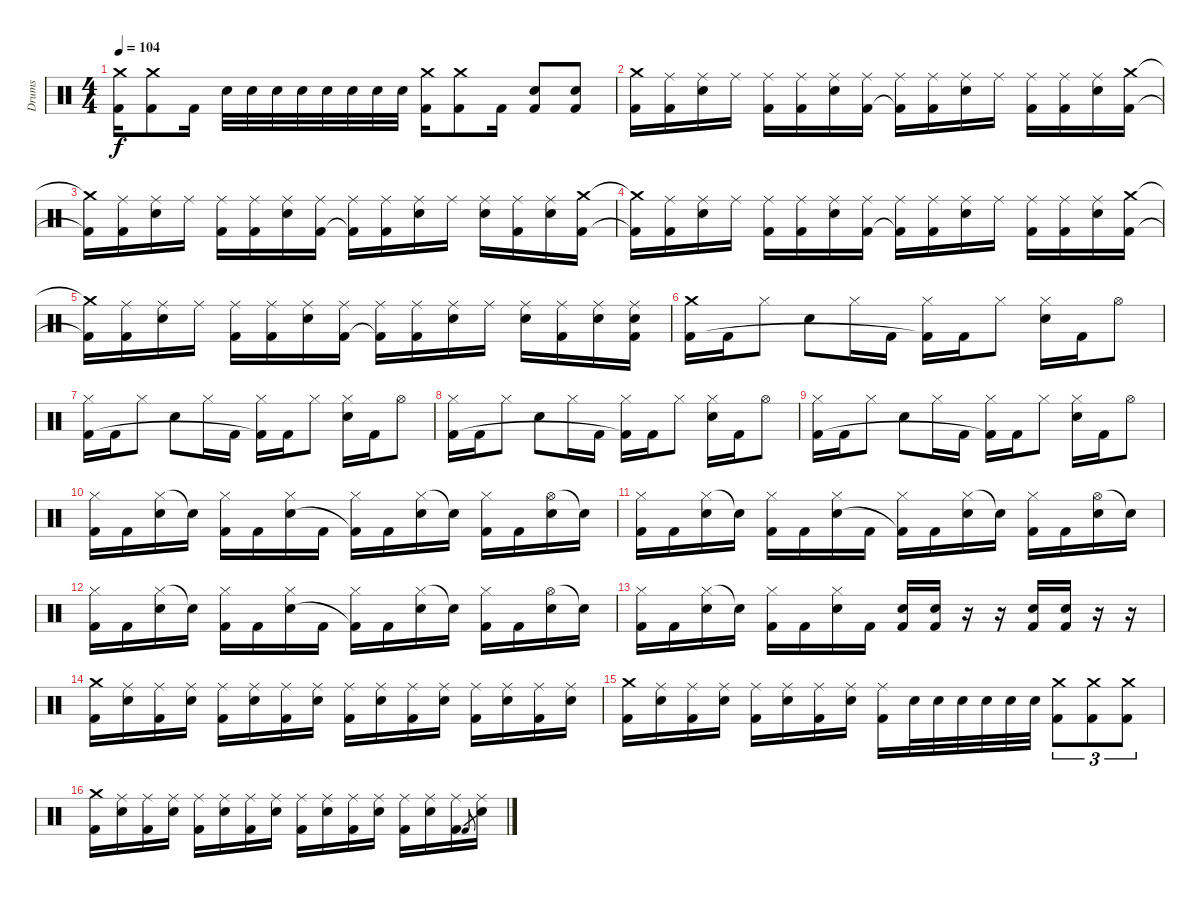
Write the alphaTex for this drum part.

\track ("Drums" "Drums") {instrument percussion}
\staff {score}
\articulation defaults
\ts (4 4)
\tempo 104
\clef neutral
\ks c
("Crash medium (hit)" "Kick (hit) 2").16{dy f} ("Crash medium (hit)" "Kick (hit) 2").8 "Kick (hit) 2".16 "Electric Snare (hit)".32 "Electric Snare (hit)".32 "Electric Snare (hit)".32 "Electric Snare (hit)".32 "Electric Snare (hit)".32 "Electric Snare (hit)".32 "Electric Snare (hit)".32 "Electric Snare (hit)".32 ("Crash medium (hit)" "Kick (hit) 2").16 ("Crash medium (hit)" "Kick (hit) 2").8 "Kick (hit) 2".16 ("Electric Snare (hit)" "Kick (hit) 2").8 ("Electric Snare (hit)" "Kick (hit) 2").8 |
("Crash medium (hit)" "Kick (hit) 2").16 ("Ride (middle)" "Kick (hit) 2").16 ("Ride (middle)" "Electric Snare (hit)").16 "Ride (middle)".16 ("Ride (middle)" "Kick (hit) 2").16 ("Ride (middle)" "Kick (hit) 2").16 ("Ride (middle)" "Electric Snare (hit)").16 ("Ride (middle)" "Kick (hit) 2").16 ("Ride (middle)" "Kick (hit) 2"{t}).16 ("Ride (middle)" "Kick (hit) 2").16 ("Ride (middle)" "Electric Snare (hit)").16 "Ride (middle)".16 ("Ride (middle)" "Kick (hit) 2").16 ("Ride (middle)" "Kick (hit) 2").16 ("Ride (middle)" "Electric Snare (hit)").16 ("Crash medium (hit)" "Kick (hit) 2").16 |
("Crash medium (hit)"{t} "Kick (hit) 2"{t}).16 ("Ride (middle)" "Kick (hit) 2").16 ("Ride (middle)" "Electric Snare (hit)").16 "Ride (middle)".16 ("Ride (middle)" "Kick (hit) 2").16 ("Ride (middle)" "Kick (hit) 2").16 ("Ride (middle)" "Electric Snare (hit)").16 ("Ride (middle)" "Kick (hit) 2").16 ("Ride (middle)" "Kick (hit) 2"{t}).16 ("Ride (middle)" "Kick (hit) 2").16 ("Ride (middle)" "Electric Snare (hit)").16 "Ride (middle)".16 ("Ride (middle)" "Electric Snare (hit)").16 ("Ride (middle)" "Kick (hit) 2").16 ("Ride (middle)" "Electric Snare (hit)").16 ("Crash medium (hit)" "Kick (hit) 2").16 |
("Crash medium (hit)"{t} "Kick (hit) 2"{t}).16 ("Ride (middle)" "Kick (hit) 2").16 ("Ride (middle)" "Electric Snare (hit)").16 "Ride (middle)".16 ("Ride (middle)" "Kick (hit) 2").16 ("Ride (middle)" "Kick (hit) 2").16 ("Ride (middle)" "Electric Snare (hit)").16 ("Ride (middle)" "Kick (hit) 2").16 ("Ride (middle)" "Kick (hit) 2"{t}).16 ("Ride (middle)" "Kick (hit) 2").16 ("Ride (middle)" "Electric Snare (hit)").16 "Ride (middle)".16 ("Ride (middle)" "Kick (hit) 2").16 ("Ride (middle)" "Kick (hit) 2").16 ("Ride (middle)" "Electric Snare (hit)").16 ("Crash medium (hit)" "Kick (hit) 2").16 |
("Crash medium (hit)"{t} "Kick (hit) 2"{t}).16 ("Ride (middle)" "Kick (hit) 2").16 ("Ride (middle)" "Electric Snare (hit)").16 "Ride (middle)".16 ("Ride (middle)" "Kick (hit) 2").16 ("Ride (middle)" "Kick (hit) 2").16 ("Ride (middle)" "Electric Snare (hit)").16 ("Ride (middle)" "Kick (hit) 2").16 ("Ride (middle)" "Kick (hit) 2"{t}).16 ("Ride (middle)" "Kick (hit) 2").16 ("Ride (middle)" "Electric Snare (hit)").16 "Ride (middle)".16 ("Ride (middle)" "Electric Snare (hit)").16 ("Ride (middle)" "Kick (hit) 2").16 ("Ride (middle)" "Electric Snare (hit)").16 ("Ride (middle)" "Electric Snare (hit)" "Kick (hit) 2").16 |
("Crash medium (hit)" "Kick (hit) 2").16 "Kick (hit) 2".16 "Hi-Hat (closed)".8 "Electric Snare (hit)".8 "Hi-Hat (closed)".16 "Kick (hit) 2".16 ("Hi-Hat (closed)" "Kick (hit) 2"{t}).16 "Kick (hit) 2".16 "Hi-Hat (closed)".8 ("Hi-Hat (closed)" "Electric Snare (hit)").16 "Kick (hit) 2".16 "Hi-Hat (open)".8 |
("Hi-Hat (closed)" "Kick (hit) 2").16 "Kick (hit) 2".16 "Hi-Hat (closed)".8 "Electric Snare (hit)".8 "Hi-Hat (closed)".16 "Kick (hit) 2".16 ("Hi-Hat (closed)" "Kick (hit) 2"{t}).16 "Kick (hit) 2".16 "Hi-Hat (closed)".8 ("Hi-Hat (closed)" "Electric Snare (hit)").16 "Kick (hit) 2".16 "Hi-Hat (open)".8 |
("Hi-Hat (closed)" "Kick (hit) 2").16 "Kick (hit) 2".16 "Hi-Hat (closed)".8 "Electric Snare (hit)".8 "Hi-Hat (closed)".16 "Kick (hit) 2".16 ("Hi-Hat (closed)" "Kick (hit) 2"{t}).16 "Kick (hit) 2".16 "Hi-Hat (closed)".8 ("Hi-Hat (closed)" "Electric Snare (hit)").16 "Kick (hit) 2".16 "Hi-Hat (open)".8 |
("Hi-Hat (closed)" "Kick (hit) 2").16 "Kick (hit) 2".16 "Hi-Hat (closed)".8 "Electric Snare (hit)".8 "Hi-Hat (closed)".16 "Kick (hit) 2".16 ("Hi-Hat (closed)" "Kick (hit) 2"{t}).16 "Kick (hit) 2".16 "Hi-Hat (closed)".8 ("Hi-Hat (closed)" "Electric Snare (hit)").16 "Kick (hit) 2".16 "Hi-Hat (open)".8 |
("Hi-Hat (closed)" "Kick (hit) 2").16 "Kick (hit) 2".16 ("Hi-Hat (closed)" "Electric Snare (hit)").16 "Electric Snare (hit)"{t}.16 ("Hi-Hat (closed)" "Kick (hit) 2").16 "Kick (hit) 2".16 ("Hi-Hat (closed)" "Electric Snare (hit)").16 "Kick (hit) 2".16 ("Hi-Hat (closed)" "Kick (hit) 2"{t}).16 "Kick (hit) 2".16 ("Hi-Hat (closed)" "Electric Snare (hit)").16 "Electric Snare (hit)"{t}.16 ("Hi-Hat (closed)" "Kick (hit) 2").16 "Kick (hit) 2".16 ("Hi-Hat (open)" "Electric Snare (hit)").16 "Electric Snare (hit)"{t}.16 |
("Hi-Hat (closed)" "Kick (hit) 2").16 "Kick (hit) 2".16 ("Hi-Hat (closed)" "Electric Snare (hit)").16 "Electric Snare (hit)"{t}.16 ("Hi-Hat (closed)" "Kick (hit) 2").16 "Kick (hit) 2".16 ("Hi-Hat (closed)" "Electric Snare (hit)").16 "Kick (hit) 2".16 ("Hi-Hat (closed)" "Kick (hit) 2"{t}).16 "Kick (hit) 2".16 ("Hi-Hat (closed)" "Electric Snare (hit)").16 "Electric Snare (hit)"{t}.16 ("Hi-Hat (closed)" "Kick (hit) 2").16 "Kick (hit) 2".16 ("Hi-Hat (open)" "Electric Snare (hit)").16 "Electric Snare (hit)"{t}.16 |
("Hi-Hat (closed)" "Kick (hit) 2").16 "Kick (hit) 2".16 ("Hi-Hat (closed)" "Electric Snare (hit)").16 "Electric Snare (hit)"{t}.16 ("Hi-Hat (closed)" "Kick (hit) 2").16 "Kick (hit) 2".16 ("Hi-Hat (closed)" "Electric Snare (hit)").16 "Kick (hit) 2".16 ("Hi-Hat (closed)" "Kick (hit) 2"{t}).16 "Kick (hit) 2".16 ("Hi-Hat (closed)" "Electric Snare (hit)").16 "Electric Snare (hit)"{t}.16 ("Hi-Hat (closed)" "Kick (hit) 2").16 "Kick (hit) 2".16 ("Hi-Hat (open)" "Electric Snare (hit)").16 "Electric Snare (hit)"{t}.16 |
("Hi-Hat (closed)" "Kick (hit) 2").16 "Kick (hit) 2".16 ("Hi-Hat (closed)" "Electric Snare (hit)").16 "Electric Snare (hit)"{t}.16 ("Hi-Hat (closed)" "Kick (hit) 2").16 "Kick (hit) 2".16 ("Hi-Hat (closed)" "Electric Snare (hit)").16 "Kick (hit) 2".16 ("Electric Snare (hit)" "Kick (hit) 2").16 ("Electric Snare (hit)" "Kick (hit) 2").16 r.16 r.16 ("Electric Snare (hit)" "Kick (hit) 2").16 ("Electric Snare (hit)" "Kick (hit) 2").16 r.16 r.16 |
("Crash medium (hit)" "Kick (hit) 2").16 ("Ride (middle)" "Electric Snare (hit)").16 ("Ride (middle)" "Kick (hit) 2").16 ("Ride (middle)" "Electric Snare (hit)").16 ("Ride (middle)" "Kick (hit) 2").16 ("Ride (middle)" "Electric Snare (hit)").16 ("Ride (middle)" "Kick (hit) 2").16 ("Ride (middle)" "Electric Snare (hit)").16 ("Ride (middle)" "Kick (hit) 2").16 ("Ride (middle)" "Electric Snare (hit)").16 ("Ride (middle)" "Kick (hit) 2").16 ("Ride (middle)" "Electric Snare (hit)").16 ("Ride (middle)" "Kick (hit) 2").16 ("Ride (middle)" "Electric Snare (hit)").16 ("Ride (middle)" "Kick (hit) 2").16 ("Ride (middle)" "Electric Snare (hit)").16 |
("Crash medium (hit)" "Kick (hit) 2").16 ("Ride (middle)" "Electric Snare (hit)").16 ("Ride (middle)" "Kick (hit) 2").16 ("Ride (middle)" "Electric Snare (hit)").16 ("Ride (middle)" "Kick (hit) 2").16 ("Ride (middle)" "Electric Snare (hit)").16 ("Ride (middle)" "Kick (hit) 2").16 ("Ride (middle)" "Electric Snare (hit)").16 ("Ride (middle)" "Kick (hit) 2").16 "Electric Snare (hit)".32 "Electric Snare (hit)".32 "Electric Snare (hit)".32 "Electric Snare (hit)".32 "Electric Snare (hit)".32 "Electric Snare (hit)".32 ("Crash medium (hit)" "Kick (hit) 2").8{tu (3 2)} ("Crash medium (hit)" "Kick (hit) 2").8{tu (3 2)} ("Crash medium (hit)" "Kick (hit) 2").8{tu (3 2)} |
("Crash medium (hit)" "Kick (hit) 2").16 ("Ride (middle)" "Electric Snare (hit)").16 ("Ride (middle)" "Kick (hit) 2").16 ("Ride (middle)" "Electric Snare (hit)").16 ("Ride (middle)" "Kick (hit) 2").16 ("Ride (middle)" "Electric Snare (hit)").16 ("Ride (middle)" "Kick (hit) 2").16 ("Ride (middle)" "Electric Snare (hit)").16 ("Ride (middle)" "Kick (hit) 2").16 ("Ride (middle)" "Electric Snare (hit)").16 ("Ride (middle)" "Kick (hit) 2").16 ("Ride (middle)" "Electric Snare (hit)").16 ("Ride (middle)" "Kick (hit) 2").16 ("Ride (middle)" "Electric Snare (hit)").16 ("Ride (middle)" "Kick (hit) 2").16 "Kick (hit) 2".8{gr} ("Ride (middle)" "Electric Snare (hit)").16
